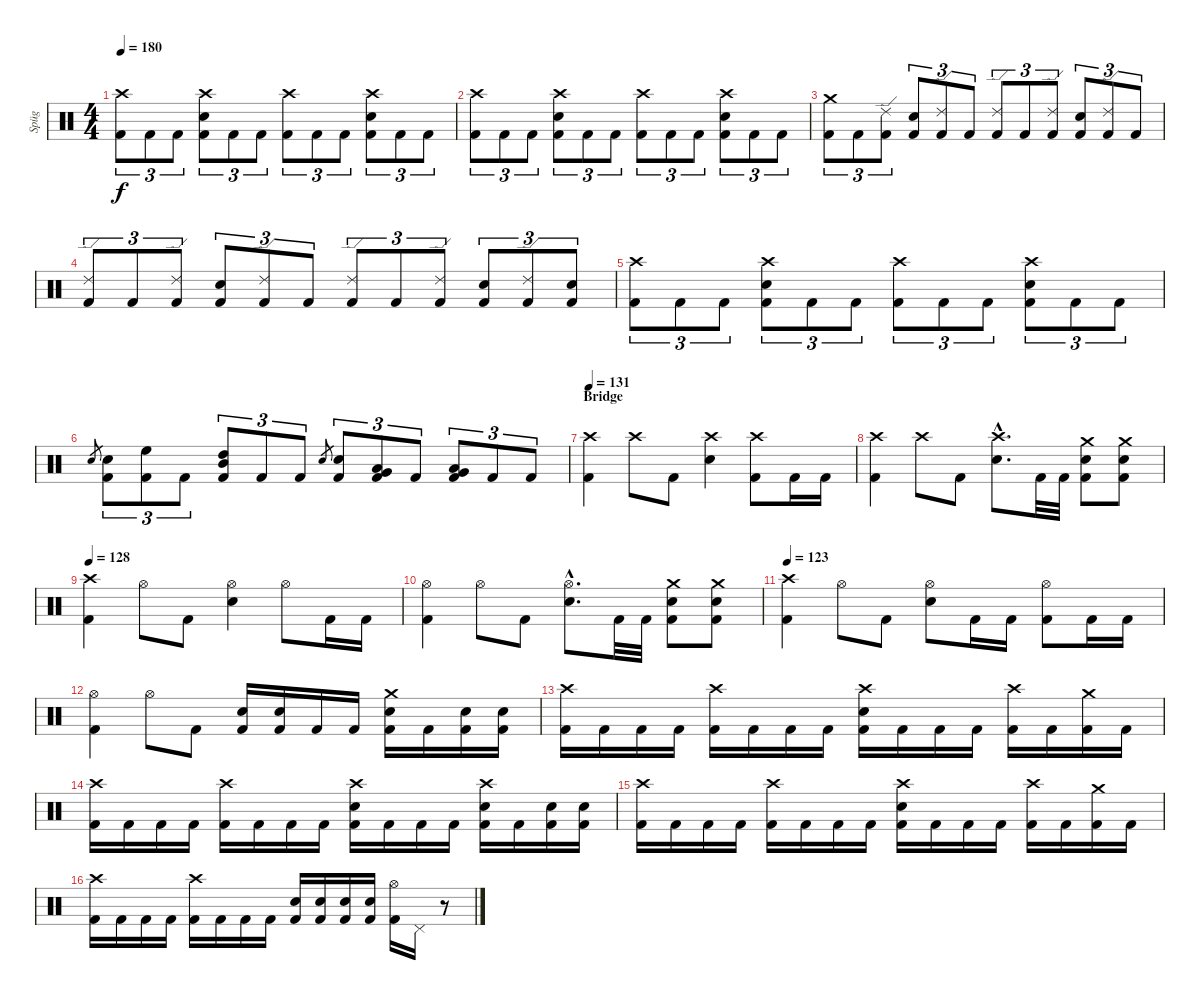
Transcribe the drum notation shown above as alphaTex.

\track ("Spüg" "Spüg") {instrument percussion}
\staff {score}
\articulation defaults
\ts (4 4)
\tempo 180
\clef neutral
\ks c
("Crash high (hit)" "Kick (hit) 2").8{tu (3 2) dy f} "Kick (hit) 2".8{tu (3 2)} "Kick (hit) 2".8{tu (3 2)} ("Crash high (hit)" "Electric Snare (hit)" "Kick (hit) 2").8{tu (3 2)} "Kick (hit) 2".8{tu (3 2)} "Kick (hit) 2".8{tu (3 2)} ("Crash high (hit)" "Kick (hit) 2").8{tu (3 2)} "Kick (hit) 2".8{tu (3 2)} "Kick (hit) 2".8{tu (3 2)} ("Crash high (hit)" "Electric Snare (hit)" "Kick (hit) 2").8{tu (3 2)} "Kick (hit) 2".8{tu (3 2)} "Kick (hit) 2".8{tu (3 2)} |
("Crash high (hit)" "Kick (hit) 2").8{tu (3 2)} "Kick (hit) 2".8{tu (3 2)} "Kick (hit) 2".8{tu (3 2)} ("Crash high (hit)" "Electric Snare (hit)" "Kick (hit) 2").8{tu (3 2)} "Kick (hit) 2".8{tu (3 2)} "Kick (hit) 2".8{tu (3 2)} ("Crash high (hit)" "Kick (hit) 2").8{tu (3 2)} "Kick (hit) 2".8{tu (3 2)} "Kick (hit) 2".8{tu (3 2)} ("Crash high (hit)" "Electric Snare (hit)" "Kick (hit) 2").8{tu (3 2)} "Kick (hit) 2".8{tu (3 2)} "Kick (hit) 2".8{tu (3 2)} |
("Crash medium (hit)" "Kick (hit) 2").8{tu (3 2)} "Kick (hit) 2".8{tu (3 2)} ("Ride (edge) 2" "Kick (hit) 2").8{tu (3 2)} ("Electric Snare (hit)" "Kick (hit) 2").8{tu (3 2)} ("Ride (edge) 2" "Kick (hit) 2").8{tu (3 2)} "Kick (hit) 2".8{tu (3 2)} ("Ride (edge) 2" "Kick (hit) 2").8{tu (3 2)} "Kick (hit) 2".8{tu (3 2)} ("Ride (edge) 2" "Kick (hit) 2").8{tu (3 2)} ("Electric Snare (hit)" "Kick (hit) 2").8{tu (3 2)} ("Ride (edge) 2" "Kick (hit) 2").8{tu (3 2)} "Kick (hit) 2".8{tu (3 2)} |
("Ride (edge) 2" "Kick (hit) 2").8{tu (3 2)} "Kick (hit) 2".8{tu (3 2)} ("Ride (edge) 2" "Kick (hit) 2").8{tu (3 2)} ("Electric Snare (hit)" "Kick (hit) 2").8{tu (3 2)} ("Ride (edge) 2" "Kick (hit) 2").8{tu (3 2)} "Kick (hit) 2".8{tu (3 2)} ("Ride (edge) 2" "Kick (hit) 2").8{tu (3 2)} "Kick (hit) 2".8{tu (3 2)} ("Ride (edge) 2" "Kick (hit) 2").8{tu (3 2)} ("Electric Snare (hit)" "Kick (hit) 2").8{tu (3 2)} ("Ride (edge) 2" "Kick (hit) 2").8{tu (3 2)} ("Electric Snare (hit)" "Kick (hit) 2").8{tu (3 2)} |
("Crash high (hit)" "Kick (hit) 2").8{tu (3 2)} "Kick (hit) 2".8{tu (3 2)} "Kick (hit) 2".8{tu (3 2)} ("Crash high (hit)" "Electric Snare (hit)" "Kick (hit) 2").8{tu (3 2)} "Kick (hit) 2".8{tu (3 2)} "Kick (hit) 2".8{tu (3 2)} ("Crash high (hit)" "Kick (hit) 2").8{tu (3 2)} "Kick (hit) 2".8{tu (3 2)} "Kick (hit) 2".8{tu (3 2)} ("Crash high (hit)" "Electric Snare (hit)" "Kick (hit) 2").8{tu (3 2)} "Kick (hit) 2".8{tu (3 2)} "Kick (hit) 2".8{tu (3 2)} |
"Electric Snare (hit)".8{gr} ("Electric Snare (hit)" "Kick (hit) 2").8{tu (3 2)} ("High Floor Tom (hit)" "Kick (hit) 2").8{tu (3 2)} "Kick (hit) 2".8{tu (3 2)} ("High Tom (hit)" "Mid Tom (hit)" "Kick (hit) 2").8{tu (3 2)} "Kick (hit) 2".8{tu (3 2)} "Kick (hit) 2".8{tu (3 2)} "Electric Snare (hit)".8{gr} ("Electric Snare (hit)" "Kick (hit) 2").8{tu (3 2)} ("Low Tom (hit)" "Very Low Tom (hit)" "Kick (hit) 2").8{tu (3 2)} "Kick (hit) 2".8{tu (3 2)} ("Low Floor Tom (hit)" "Very Low Tom (hit)" "Kick (hit) 2").8{tu (3 2)} "Kick (hit) 2".8{tu (3 2)} "Kick (hit) 2".8{tu (3 2)} |
\section ("" "Bridge")
\tempo 131
("Crash high (hit)" "Kick (hit) 2").4 "Crash high (hit)".8 "Kick (hit) 2".8 ("Crash high (hit)" "Electric Snare (hit)").4 ("Crash high (hit)" "Kick (hit) 2").8 "Kick (hit) 2".16 "Kick (hit) 2".16 |
("Crash high (hit)" "Kick (hit) 2").4 "Crash high (hit)".8 "Kick (hit) 2".8 ("Crash high (hit)"{hac} "Electric Snare (hit)"{hac}).8{d} "Kick (hit) 2".32 "Kick (hit) 2".32 ("Crash medium (hit)" "Electric Snare (hit)" "Kick (hit) 2").8 ("Crash medium (hit)" "Electric Snare (hit)" "Kick (hit) 2").8 |
\tempo 128
("Crash high (hit)" "Kick (hit) 2").4 "Hi-Hat (open)".8 "Kick (hit) 2".8 ("Hi-Hat (open)" "Electric Snare (hit)").4 "Hi-Hat (open)".8 "Kick (hit) 2".16 "Kick (hit) 2".16 |
("Hi-Hat (open)" "Kick (hit) 2").4 "Hi-Hat (open)".8 "Kick (hit) 2".8 ("Hi-Hat (open)"{hac} "Electric Snare (hit)"{hac}).8{d} "Kick (hit) 2".32 "Kick (hit) 2".32 ("Crash medium (hit)" "Electric Snare (hit)" "Kick (hit) 2").8 ("Crash medium (hit)" "Electric Snare (hit)" "Kick (hit) 2").8 |
\tempo 123
("Crash high (hit)" "Kick (hit) 2").4 "Hi-Hat (open)".8 "Kick (hit) 2".8 ("Hi-Hat (open)" "Electric Snare (hit)").8 "Kick (hit) 2".16 "Kick (hit) 2".16 ("Hi-Hat (open)" "Kick (hit) 2").8 "Kick (hit) 2".16 "Kick (hit) 2".16 |
("Hi-Hat (open)" "Kick (hit) 2").4 "Hi-Hat (open)".8 "Kick (hit) 2".8 ("Electric Snare (hit)" "Kick (hit) 2").16 ("Electric Snare (hit)" "Kick (hit) 2").16 "Kick (hit) 2".16 "Kick (hit) 2".16 ("Crash medium (hit)" "Electric Snare (hit)" "Kick (hit) 2").16 "Kick (hit) 2".16 ("Electric Snare (hit)" "Kick (hit) 2").16 ("Electric Snare (hit)" "Kick (hit) 2").16 |
("Crash high (hit)" "Kick (hit) 2").16 "Kick (hit) 2".16 "Kick (hit) 2".16 "Kick (hit) 2".16 ("Crash high (hit)" "Kick (hit) 2").16 "Kick (hit) 2".16 "Kick (hit) 2".16 "Kick (hit) 2".16 ("Crash high (hit)" "Electric Snare (hit)" "Kick (hit) 2").16 "Kick (hit) 2".16 "Kick (hit) 2".16 "Kick (hit) 2".16 ("Crash high (hit)" "Kick (hit) 2").16 "Kick (hit) 2".16 ("Crash medium (hit)" "Kick (hit) 2").16 "Kick (hit) 2".16 |
("Crash high (hit)" "Kick (hit) 2").16 "Kick (hit) 2".16 "Kick (hit) 2".16 "Kick (hit) 2".16 ("Crash high (hit)" "Kick (hit) 2").16 "Kick (hit) 2".16 "Kick (hit) 2".16 "Kick (hit) 2".16 ("Crash high (hit)" "Electric Snare (hit)" "Kick (hit) 2").16 "Kick (hit) 2".16 "Kick (hit) 2".16 "Kick (hit) 2".16 ("Crash high (hit)" "Electric Snare (hit)" "Kick (hit) 2").16 "Kick (hit) 2".16 ("Electric Snare (hit)" "Kick (hit) 2").16 ("Electric Snare (hit)" "Kick (hit) 2").16 |
("Crash high (hit)" "Kick (hit) 2").16 "Kick (hit) 2".16 "Kick (hit) 2".16 "Kick (hit) 2".16 ("Crash high (hit)" "Kick (hit) 2").16 "Kick (hit) 2".16 "Kick (hit) 2".16 "Kick (hit) 2".16 ("Crash high (hit)" "Electric Snare (hit)" "Kick (hit) 2").16 "Kick (hit) 2".16 "Kick (hit) 2".16 "Kick (hit) 2".16 ("Crash high (hit)" "Kick (hit) 2").16 "Kick (hit) 2".16 ("Crash medium (hit)" "Kick (hit) 2").16 "Kick (hit) 2".16 |
("Crash high (hit)" "Kick (hit) 2").16 "Kick (hit) 2".16 "Kick (hit) 2".16 "Kick (hit) 2".16 ("Crash high (hit)" "Kick (hit) 2").16 "Kick (hit) 2".16 "Kick (hit) 2".16 "Kick (hit) 2".16 ("Electric Snare (hit)" "Kick (hit) 2").16 ("Electric Snare (hit)" "Kick (hit) 2").16 ("Electric Snare (hit)" "Kick (hit) 2").16 ("Electric Snare (hit)" "Kick (hit) 2").16 ("Hi-Hat (open)" "Kick (hit) 2").16 "Pedal Hi-Hat (hit)".16 r.8
